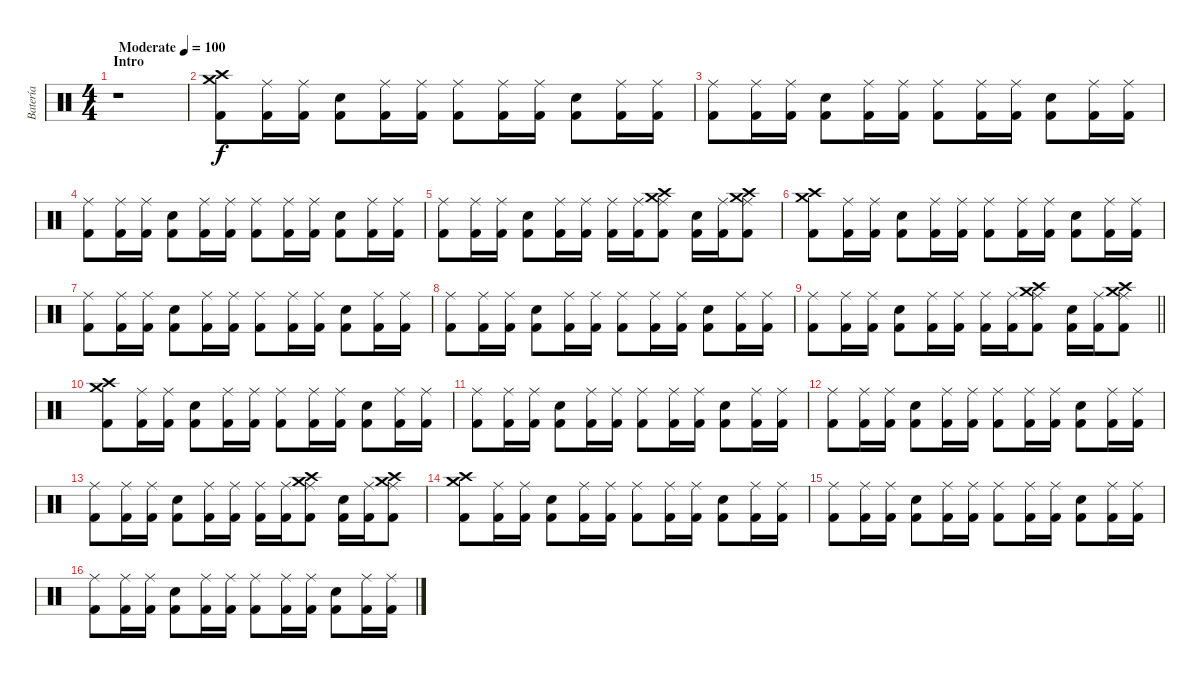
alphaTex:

\track ("Batería" "Batería") {instrument percussion}
\staff {score}
\articulation defaults
\ts (4 4)
\section ("" "Intro")
\tempo (100 "Moderate")
\clef neutral
\ks c
r.1{dy f} |
("Crash medium (hit)" "Crash high (hit)" "Kick (hit) 2").8 ("Ride (middle)" "Kick (hit) 2").16 ("Ride (middle)" "Kick (hit) 2").16 ("Electric Snare (hit)" "Kick (hit) 2").8 ("Ride (middle)" "Kick (hit) 2").16 ("Ride (middle)" "Kick (hit) 2").16 ("Ride (middle)" "Kick (hit) 2").8 ("Ride (middle)" "Kick (hit) 2").16 ("Ride (middle)" "Kick (hit) 2").16 ("Electric Snare (hit)" "Kick (hit) 2").8 ("Ride (middle)" "Kick (hit) 2").16 ("Ride (middle)" "Kick (hit) 2").16 |
("Ride (middle)" "Kick (hit) 2").8 ("Ride (middle)" "Kick (hit) 2").16 ("Ride (middle)" "Kick (hit) 2").16 ("Electric Snare (hit)" "Kick (hit) 2").8 ("Ride (middle)" "Kick (hit) 2").16 ("Ride (middle)" "Kick (hit) 2").16 ("Ride (middle)" "Kick (hit) 2").8 ("Ride (middle)" "Kick (hit) 2").16 ("Ride (middle)" "Kick (hit) 2").16 ("Electric Snare (hit)" "Kick (hit) 2").8 ("Ride (middle)" "Kick (hit) 2").16 ("Ride (middle)" "Kick (hit) 2").16 |
("Ride (middle)" "Kick (hit) 2").8 ("Ride (middle)" "Kick (hit) 2").16 ("Ride (middle)" "Kick (hit) 2").16 ("Electric Snare (hit)" "Kick (hit) 2").8 ("Ride (middle)" "Kick (hit) 2").16 ("Ride (middle)" "Kick (hit) 2").16 ("Ride (middle)" "Kick (hit) 2").8 ("Ride (middle)" "Kick (hit) 2").16 ("Ride (middle)" "Kick (hit) 2").16 ("Electric Snare (hit)" "Kick (hit) 2").8 ("Ride (middle)" "Kick (hit) 2").16 ("Ride (middle)" "Kick (hit) 2").16 |
("Ride (middle)" "Kick (hit) 2").8 ("Ride (middle)" "Kick (hit) 2").16 ("Ride (middle)" "Kick (hit) 2").16 ("Electric Snare (hit)" "Kick (hit) 2").8 ("Ride (middle)" "Kick (hit) 2").16 ("Ride (middle)" "Kick (hit) 2").16 ("Ride (middle)" "Kick (hit) 2").16 ("Ride (middle)" "Kick (hit) 2").16 ("Crash medium (hit)" "Crash high (hit)" "Ride (middle)" "Kick (hit) 2").8 ("Electric Snare (hit)" "Kick (hit) 2").16 ("Ride (middle)" "Kick (hit) 2").16 ("Crash medium (hit)" "Crash high (hit)" "Ride (middle)" "Kick (hit) 2").8 |
("Crash medium (hit)" "Crash high (hit)" "Kick (hit) 2").8 ("Ride (middle)" "Kick (hit) 2").16 ("Ride (middle)" "Kick (hit) 2").16 ("Electric Snare (hit)" "Kick (hit) 2").8 ("Ride (middle)" "Kick (hit) 2").16 ("Ride (middle)" "Kick (hit) 2").16 ("Ride (middle)" "Kick (hit) 2").8 ("Ride (middle)" "Kick (hit) 2").16 ("Ride (middle)" "Kick (hit) 2").16 ("Electric Snare (hit)" "Kick (hit) 2").8 ("Ride (middle)" "Kick (hit) 2").16 ("Ride (middle)" "Kick (hit) 2").16 |
("Ride (middle)" "Kick (hit) 2").8 ("Ride (middle)" "Kick (hit) 2").16 ("Ride (middle)" "Kick (hit) 2").16 ("Electric Snare (hit)" "Kick (hit) 2").8 ("Ride (middle)" "Kick (hit) 2").16 ("Ride (middle)" "Kick (hit) 2").16 ("Ride (middle)" "Kick (hit) 2").8 ("Ride (middle)" "Kick (hit) 2").16 ("Ride (middle)" "Kick (hit) 2").16 ("Electric Snare (hit)" "Kick (hit) 2").8 ("Ride (middle)" "Kick (hit) 2").16 ("Ride (middle)" "Kick (hit) 2").16 |
("Ride (middle)" "Kick (hit) 2").8 ("Ride (middle)" "Kick (hit) 2").16 ("Ride (middle)" "Kick (hit) 2").16 ("Electric Snare (hit)" "Kick (hit) 2").8 ("Ride (middle)" "Kick (hit) 2").16 ("Ride (middle)" "Kick (hit) 2").16 ("Ride (middle)" "Kick (hit) 2").8 ("Ride (middle)" "Kick (hit) 2").16 ("Ride (middle)" "Kick (hit) 2").16 ("Electric Snare (hit)" "Kick (hit) 2").8 ("Ride (middle)" "Kick (hit) 2").16 ("Ride (middle)" "Kick (hit) 2").16 |
\barLineRight lightlight
("Ride (middle)" "Kick (hit) 2").8 ("Ride (middle)" "Kick (hit) 2").16 ("Ride (middle)" "Kick (hit) 2").16 ("Electric Snare (hit)" "Kick (hit) 2").8 ("Ride (middle)" "Kick (hit) 2").16 ("Ride (middle)" "Kick (hit) 2").16 ("Ride (middle)" "Kick (hit) 2").16 ("Ride (middle)" "Kick (hit) 2").16 ("Crash medium (hit)" "Crash high (hit)" "Ride (middle)" "Kick (hit) 2").8 ("Electric Snare (hit)" "Kick (hit) 2").16 ("Ride (middle)" "Kick (hit) 2").16 ("Crash medium (hit)" "Crash high (hit)" "Ride (middle)" "Kick (hit) 2").8 |
\section ("" "")
("Crash medium (hit)" "Crash high (hit)" "Kick (hit) 2").8 ("Ride (middle)" "Kick (hit) 2").16 ("Ride (middle)" "Kick (hit) 2").16 ("Electric Snare (hit)" "Kick (hit) 2").8 ("Ride (middle)" "Kick (hit) 2").16 ("Ride (middle)" "Kick (hit) 2").16 ("Ride (middle)" "Kick (hit) 2").8 ("Ride (middle)" "Kick (hit) 2").16 ("Ride (middle)" "Kick (hit) 2").16 ("Electric Snare (hit)" "Kick (hit) 2").8 ("Ride (middle)" "Kick (hit) 2").16 ("Ride (middle)" "Kick (hit) 2").16 |
("Ride (middle)" "Kick (hit) 2").8 ("Ride (middle)" "Kick (hit) 2").16 ("Ride (middle)" "Kick (hit) 2").16 ("Electric Snare (hit)" "Kick (hit) 2").8 ("Ride (middle)" "Kick (hit) 2").16 ("Ride (middle)" "Kick (hit) 2").16 ("Ride (middle)" "Kick (hit) 2").8 ("Ride (middle)" "Kick (hit) 2").16 ("Ride (middle)" "Kick (hit) 2").16 ("Electric Snare (hit)" "Kick (hit) 2").8 ("Ride (middle)" "Kick (hit) 2").16 ("Ride (middle)" "Kick (hit) 2").16 |
("Ride (middle)" "Kick (hit) 2").8 ("Ride (middle)" "Kick (hit) 2").16 ("Ride (middle)" "Kick (hit) 2").16 ("Electric Snare (hit)" "Kick (hit) 2").8 ("Ride (middle)" "Kick (hit) 2").16 ("Ride (middle)" "Kick (hit) 2").16 ("Ride (middle)" "Kick (hit) 2").8 ("Ride (middle)" "Kick (hit) 2").16 ("Ride (middle)" "Kick (hit) 2").16 ("Electric Snare (hit)" "Kick (hit) 2").8 ("Ride (middle)" "Kick (hit) 2").16 ("Ride (middle)" "Kick (hit) 2").16 |
("Ride (middle)" "Kick (hit) 2").8 ("Ride (middle)" "Kick (hit) 2").16 ("Ride (middle)" "Kick (hit) 2").16 ("Electric Snare (hit)" "Kick (hit) 2").8 ("Ride (middle)" "Kick (hit) 2").16 ("Ride (middle)" "Kick (hit) 2").16 ("Ride (middle)" "Kick (hit) 2").16 ("Ride (middle)" "Kick (hit) 2").16 ("Crash medium (hit)" "Crash high (hit)" "Ride (middle)" "Kick (hit) 2").8 ("Electric Snare (hit)" "Kick (hit) 2").16 ("Ride (middle)" "Kick (hit) 2").16 ("Crash medium (hit)" "Crash high (hit)" "Ride (middle)" "Kick (hit) 2").8 |
("Crash medium (hit)" "Crash high (hit)" "Kick (hit) 2").8 ("Ride (middle)" "Kick (hit) 2").16 ("Ride (middle)" "Kick (hit) 2").16 ("Electric Snare (hit)" "Kick (hit) 2").8 ("Ride (middle)" "Kick (hit) 2").16 ("Ride (middle)" "Kick (hit) 2").16 ("Ride (middle)" "Kick (hit) 2").8 ("Ride (middle)" "Kick (hit) 2").16 ("Ride (middle)" "Kick (hit) 2").16 ("Electric Snare (hit)" "Kick (hit) 2").8 ("Ride (middle)" "Kick (hit) 2").16 ("Ride (middle)" "Kick (hit) 2").16 |
("Ride (middle)" "Kick (hit) 2").8 ("Ride (middle)" "Kick (hit) 2").16 ("Ride (middle)" "Kick (hit) 2").16 ("Electric Snare (hit)" "Kick (hit) 2").8 ("Ride (middle)" "Kick (hit) 2").16 ("Ride (middle)" "Kick (hit) 2").16 ("Ride (middle)" "Kick (hit) 2").8 ("Ride (middle)" "Kick (hit) 2").16 ("Ride (middle)" "Kick (hit) 2").16 ("Electric Snare (hit)" "Kick (hit) 2").8 ("Ride (middle)" "Kick (hit) 2").16 ("Ride (middle)" "Kick (hit) 2").16 |
("Ride (middle)" "Kick (hit) 2").8 ("Ride (middle)" "Kick (hit) 2").16 ("Ride (middle)" "Kick (hit) 2").16 ("Electric Snare (hit)" "Kick (hit) 2").8 ("Ride (middle)" "Kick (hit) 2").16 ("Ride (middle)" "Kick (hit) 2").16 ("Ride (middle)" "Kick (hit) 2").8 ("Ride (middle)" "Kick (hit) 2").16 ("Ride (middle)" "Kick (hit) 2").16 ("Electric Snare (hit)" "Kick (hit) 2").8 ("Ride (middle)" "Kick (hit) 2").16 ("Ride (middle)" "Kick (hit) 2").16
